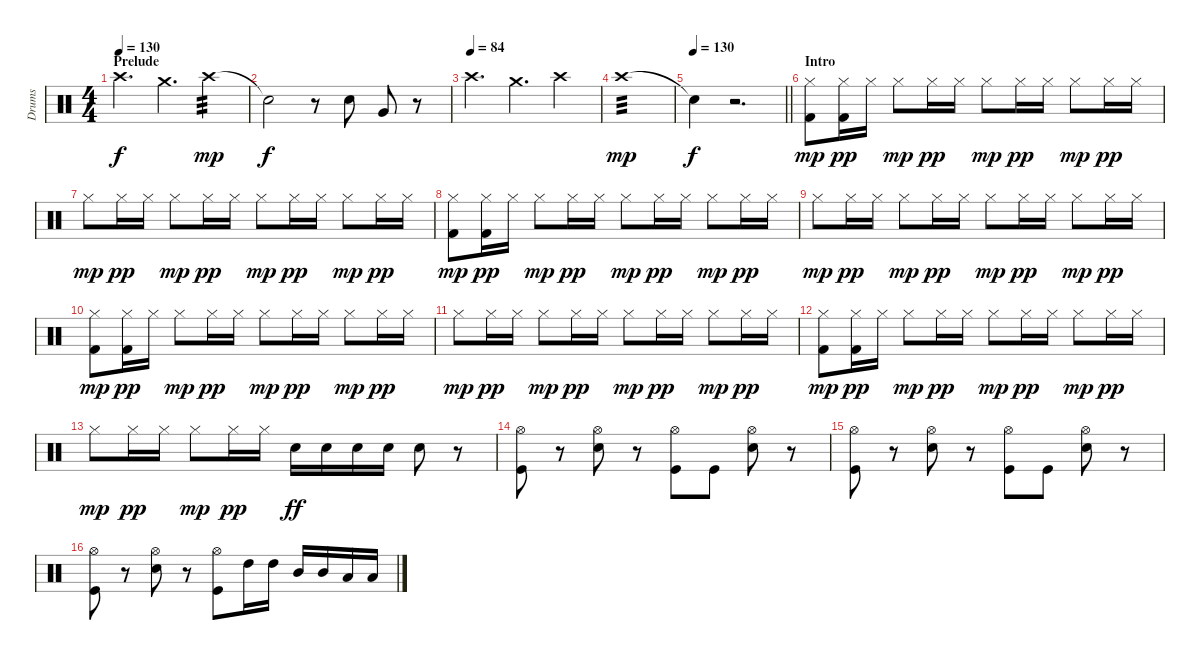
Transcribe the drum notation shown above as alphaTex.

\track ("Drums" "Drums") {instrument percussion}
\staff {score}
\articulation defaults
\ts (4 4)
\section ("" "Prelude")
\tempo 130
\clef neutral
\ks c "Crash high (hit)".4{d dy f} "Crash medium (hit)".4{d} "Crash high (hit)".4{tp 3 dy mp}
|
"Snare (hit)"{t}.2{dy f} r.8 "Electric Snare (hit)".8 "Very Low Tom (hit)".8 r.8 |
\tempo (84)
"Crash high (hit)".4{d} "Crash medium (hit)".4{d} "Crash high (hit)".4 |
"Crash high (hit)".1{tp 3 dy mp} |
\tempo 130
\barLineRight lightlight "Snare (hit)"{t}.4{dy f}
r.2{d} |
\section ("" "Intro")
("Hi-Hat (closed)" "Kick (hit) 2").8{dy mp} ("Hi-Hat (closed)" "Kick (hit) 2").16{dy pp} "Hi-Hat (closed)".16 "Hi-Hat (closed)".8{dy mp} "Hi-Hat (closed)".16{dy pp} "Hi-Hat (closed)".16 "Hi-Hat (closed)".8{dy mp} "Hi-Hat (closed)".16{dy pp} "Hi-Hat (closed)".16 "Hi-Hat (closed)".8{dy mp} "Hi-Hat (closed)".16{dy pp} "Hi-Hat (closed)".16 |
"Hi-Hat (closed)".8{dy mp} "Hi-Hat (closed)".16{dy pp} "Hi-Hat (closed)".16 "Hi-Hat (closed)".8{dy mp} "Hi-Hat (closed)".16{dy pp} "Hi-Hat (closed)".16 "Hi-Hat (closed)".8{dy mp} "Hi-Hat (closed)".16{dy pp} "Hi-Hat (closed)".16 "Hi-Hat (closed)".8{dy mp} "Hi-Hat (closed)".16{dy pp} "Hi-Hat (closed)".16 |
("Hi-Hat (closed)" "Kick (hit) 2").8{dy mp} ("Hi-Hat (closed)" "Kick (hit) 2").16{dy pp} "Hi-Hat (closed)".16 "Hi-Hat (closed)".8{dy mp} "Hi-Hat (closed)".16{dy pp} "Hi-Hat (closed)".16 "Hi-Hat (closed)".8{dy mp} "Hi-Hat (closed)".16{dy pp} "Hi-Hat (closed)".16 "Hi-Hat (closed)".8{dy mp} "Hi-Hat (closed)".16{dy pp} "Hi-Hat (closed)".16 |
"Hi-Hat (closed)".8{dy mp} "Hi-Hat (closed)".16{dy pp} "Hi-Hat (closed)".16 "Hi-Hat (closed)".8{dy mp} "Hi-Hat (closed)".16{dy pp} "Hi-Hat (closed)".16 "Hi-Hat (closed)".8{dy mp} "Hi-Hat (closed)".16{dy pp} "Hi-Hat (closed)".16 "Hi-Hat (closed)".8{dy mp} "Hi-Hat (closed)".16{dy pp} "Hi-Hat (closed)".16 |
("Hi-Hat (closed)" "Kick (hit) 2").8{dy mp} ("Hi-Hat (closed)" "Kick (hit) 2").16{dy pp} "Hi-Hat (closed)".16 "Hi-Hat (closed)".8{dy mp} "Hi-Hat (closed)".16{dy pp} "Hi-Hat (closed)".16 "Hi-Hat (closed)".8{dy mp} "Hi-Hat (closed)".16{dy pp} "Hi-Hat (closed)".16 "Hi-Hat (closed)".8{dy mp} "Hi-Hat (closed)".16{dy pp} "Hi-Hat (closed)".16 |
"Hi-Hat (closed)".8{dy mp} "Hi-Hat (closed)".16{dy pp} "Hi-Hat (closed)".16 "Hi-Hat (closed)".8{dy mp} "Hi-Hat (closed)".16{dy pp} "Hi-Hat (closed)".16 "Hi-Hat (closed)".8{dy mp} "Hi-Hat (closed)".16{dy pp} "Hi-Hat (closed)".16 "Hi-Hat (closed)".8{dy mp} "Hi-Hat (closed)".16{dy pp} "Hi-Hat (closed)".16 |
("Hi-Hat (closed)" "Kick (hit) 2").8{dy mp} ("Hi-Hat (closed)" "Kick (hit) 2").16{dy pp} "Hi-Hat (closed)".16 "Hi-Hat (closed)".8{dy mp} "Hi-Hat (closed)".16{dy pp} "Hi-Hat (closed)".16 "Hi-Hat (closed)".8{dy mp} "Hi-Hat (closed)".16{dy pp} "Hi-Hat (closed)".16 "Hi-Hat (closed)".8{dy mp} "Hi-Hat (closed)".16{dy pp} "Hi-Hat (closed)".16 |
"Hi-Hat (closed)".8{dy mp} "Hi-Hat (closed)".16{dy pp} "Hi-Hat (closed)".16 "Hi-Hat (closed)".8{dy mp} "Hi-Hat (closed)".16{dy pp} "Hi-Hat (closed)".16 "Electric Snare (hit)".16{dy ff} "Electric Snare (hit)".16 "Electric Snare (hit)".16 "Electric Snare (hit)".16 "Electric Snare (hit)".8 r.8 |
("Hi-Hat (open)" "Kick (hit)").8 r.8 ("Hi-Hat (open)" "Electric Snare (hit)").8 r.8 ("Hi-Hat (open)" "Kick (hit)").8 "Kick (hit)".8 ("Hi-Hat (open)" "Electric Snare (hit)").8 r.8 |
("Hi-Hat (open)" "Kick (hit)").8 r.8 ("Hi-Hat (open)" "Electric Snare (hit)").8 r.8 ("Hi-Hat (open)" "Kick (hit)").8 "Kick (hit)".8 ("Hi-Hat (open)" "Electric Snare (hit)").8 r.8 |
("Hi-Hat (open)" "Kick (hit)").8 r.8 ("Hi-Hat (open)" "Electric Snare (hit)").8 r.8 ("Hi-Hat (open)" "Kick (hit)").8 "High Tom (hit)".16 "High Tom (hit)".16 "Mid Tom (hit)".16 "Mid Tom (hit)".16 "Low Tom (hit)".16 "Low Tom (hit)".16
